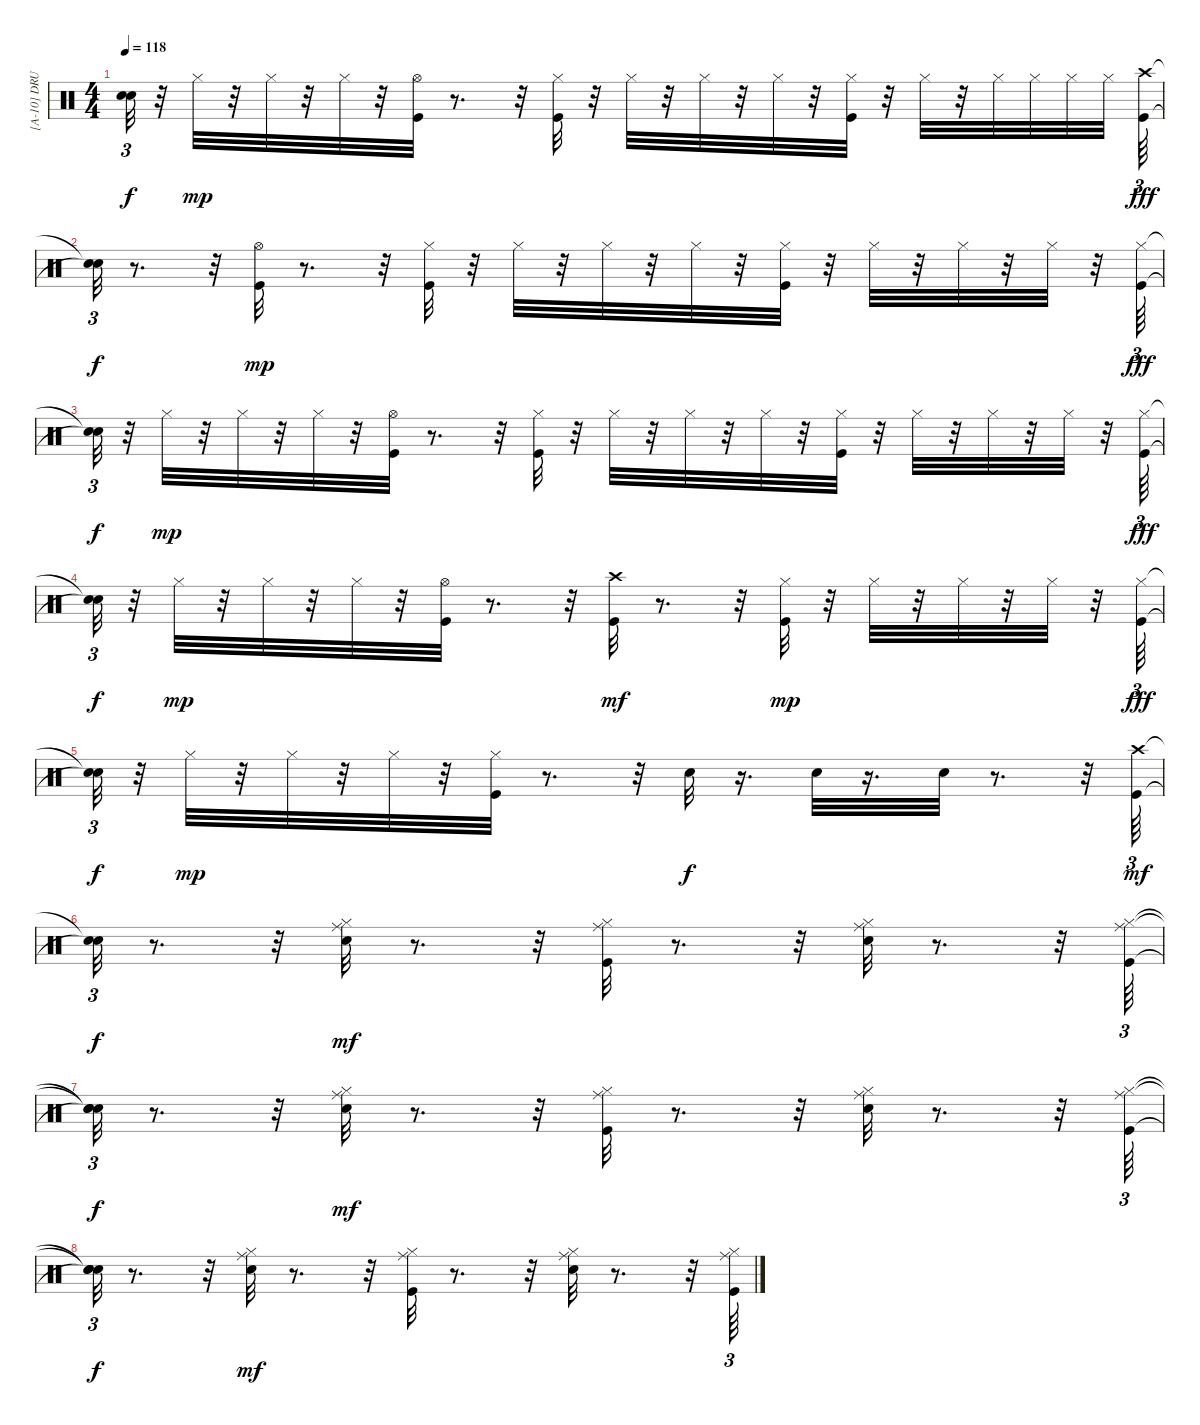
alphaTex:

\track ("[A-10] DRUM" "[A-10] DRU") {instrument percussion}
\staff {score}
\articulation defaults
\ts (4 4)
\tempo 118
\clef neutral
\ks c
("Snare (hit)"{t} "Snare (hit)"{t}).32{tu (3 2) dy f} r.32 "Hi-Hat (closed)".32{dy mp} r.32 "Hi-Hat (closed)".32 r.32 "Hi-Hat (closed)".32 r.32 ("Kick (hit)" "Hi-Hat (open)").32 r.8{d} r.32 ("Kick (hit)" "Hi-Hat (closed)").32 r.32 "Hi-Hat (closed)".32 r.32 "Hi-Hat (closed)".32 r.32 "Hi-Hat (closed)".32 r.32 ("Kick (hit)" "Hi-Hat (closed)").32 r.32 "Hi-Hat (closed)".32 r.32 "Hi-Hat (closed)".32 "Hi-Hat (closed)".32 "Hi-Hat (closed)".32 "Hi-Hat (closed)".32 ("Crash high (hit)" "Kick (hit)").64{tu (3 2) dy fff} |
("Snare (hit)"{t} "Snare (hit)"{t}).32{tu (3 2) dy f} r.8{d} r.32 ("Kick (hit)" "Hi-Hat (open)").32{dy mp} r.8{d} r.32 ("Kick (hit)" "Hi-Hat (closed)").32 r.32 "Hi-Hat (closed)".32 r.32 "Hi-Hat (closed)".32 r.32 "Hi-Hat (closed)".32 r.32 ("Kick (hit)" "Hi-Hat (closed)").32 r.32 "Hi-Hat (closed)".32 r.32 "Hi-Hat (closed)".32 r.32 "Hi-Hat (closed)".32 r.32 ("Hi-Hat (closed)" "Kick (hit)").64{tu (3 2) dy fff} |
("Snare (hit)"{t} "Snare (hit)"{t}).32{tu (3 2) dy f} r.32 "Hi-Hat (closed)".32{dy mp} r.32 "Hi-Hat (closed)".32 r.32 "Hi-Hat (closed)".32 r.32 ("Kick (hit)" "Hi-Hat (open)").32 r.8{d} r.32 ("Kick (hit)" "Hi-Hat (closed)").32 r.32 "Hi-Hat (closed)".32 r.32 "Hi-Hat (closed)".32 r.32 "Hi-Hat (closed)".32 r.32 ("Kick (hit)" "Hi-Hat (closed)").32 r.32 "Hi-Hat (closed)".32 r.32 "Hi-Hat (closed)".32 r.32 "Hi-Hat (closed)".32 r.32 ("Hi-Hat (closed)" "Kick (hit)").64{tu (3 2) dy fff} |
("Snare (hit)"{t} "Snare (hit)"{t}).32{tu (3 2) dy f} r.32 "Hi-Hat (closed)".32{dy mp} r.32 "Hi-Hat (closed)".32 r.32 "Hi-Hat (closed)".32 r.32 ("Kick (hit)" "Hi-Hat (open)").32 r.8{d} r.32 ("Kick (hit)" "Crash high (hit)").32{dy mf} r.8{d} r.32 ("Kick (hit)" "Hi-Hat (closed)").32{dy mp} r.32 "Hi-Hat (closed)".32 r.32 "Hi-Hat (closed)".32 r.32 "Hi-Hat (closed)".32 r.32 ("Hi-Hat (closed)" "Kick (hit)").64{tu (3 2) dy fff} |
("Snare (hit)"{t} "Snare (hit)"{t}).32{tu (3 2) dy f} r.32 "Hi-Hat (closed)".32{dy mp} r.32 "Hi-Hat (closed)".32 r.32 "Hi-Hat (closed)".32 r.32 ("Kick (hit)" "Hi-Hat (closed)").32 r.8{d} r.32 "Snare (hit) 2".32{dy f} r.16{d} "Snare (hit) 2".32 r.16{d} "Snare (hit) 2".32 r.8{d} r.32 ("Kick (hit)" "Crash high (hit)").64{tu (3 2) dy mf} |
("Snare (hit)"{t} "Snare (hit)"{t}).32{tu (3 2) dy f} r.8{d} r.32 ("Snare (hit) 2" "Hi-Hat (closed)" "Ride (middle)").32{dy mf} r.8{d} r.32 ("Kick (hit)" "Hi-Hat (closed)" "Ride (middle)").32 r.8{d} r.32 ("Snare (hit) 2" "Hi-Hat (closed)" "Ride (middle)").32 r.8{d} r.32 ("Kick (hit)" "Hi-Hat (closed)" "Ride (middle)").64{tu (3 2)} |
("Snare (hit)"{t} "Snare (hit)"{t} "Snare (hit)"{t}).32{tu (3 2) dy f} r.8{d} r.32 ("Snare (hit) 2" "Hi-Hat (closed)" "Ride (middle)").32{dy mf} r.8{d} r.32 ("Kick (hit)" "Hi-Hat (closed)" "Ride (middle)").32 r.8{d} r.32 ("Snare (hit) 2" "Hi-Hat (closed)" "Ride (middle)").32 r.8{d} r.32 ("Kick (hit)" "Hi-Hat (closed)" "Ride (middle)").64{tu (3 2)} |
("Snare (hit)"{t} "Snare (hit)"{t} "Snare (hit)"{t}).32{tu (3 2) dy f} r.8{d} r.32 ("Snare (hit) 2" "Hi-Hat (closed)" "Ride (middle)").32{dy mf} r.8{d} r.32 ("Kick (hit)" "Hi-Hat (closed)" "Ride (middle)").32 r.8{d} r.32 ("Snare (hit) 2" "Hi-Hat (closed)" "Ride (middle)").32 r.8{d} r.32 ("Kick (hit)" "Hi-Hat (closed)" "Ride (middle)").64{tu (3 2)}
